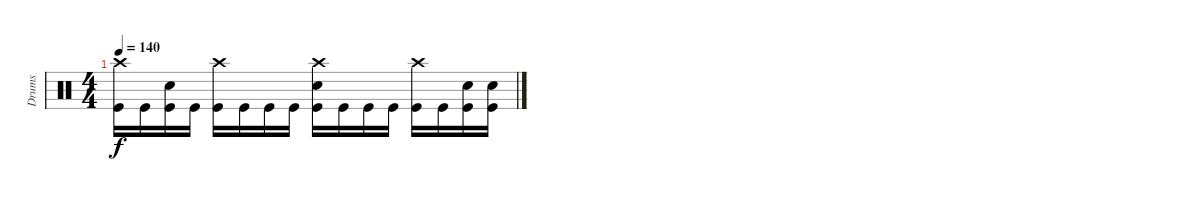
\track ("Drums" "Drums") {instrument percussion}
\staff
\articulation defaults
\ts (4 4)
\tempo 140
\clef neutral
\ks c
("Crash high (hit)" "Kick (hit)").16{dy f} "Kick (hit)".16 ("Electric Snare (hit)" "Kick (hit)").16 "Kick (hit)".16 ("Crash high (hit)" "Kick (hit)").16 "Kick (hit)".16 "Kick (hit)".16 "Kick (hit)".16 ("Crash high (hit)" "Electric Snare (hit)" "Kick (hit)").16 "Kick (hit)".16 "Kick (hit)".16 "Kick (hit)".16 ("Crash high (hit)" "Kick (hit)").16 "Kick (hit)".16 ("Electric Snare (hit)" "Kick (hit)").16 ("Electric Snare (hit)" "Kick (hit)").16
